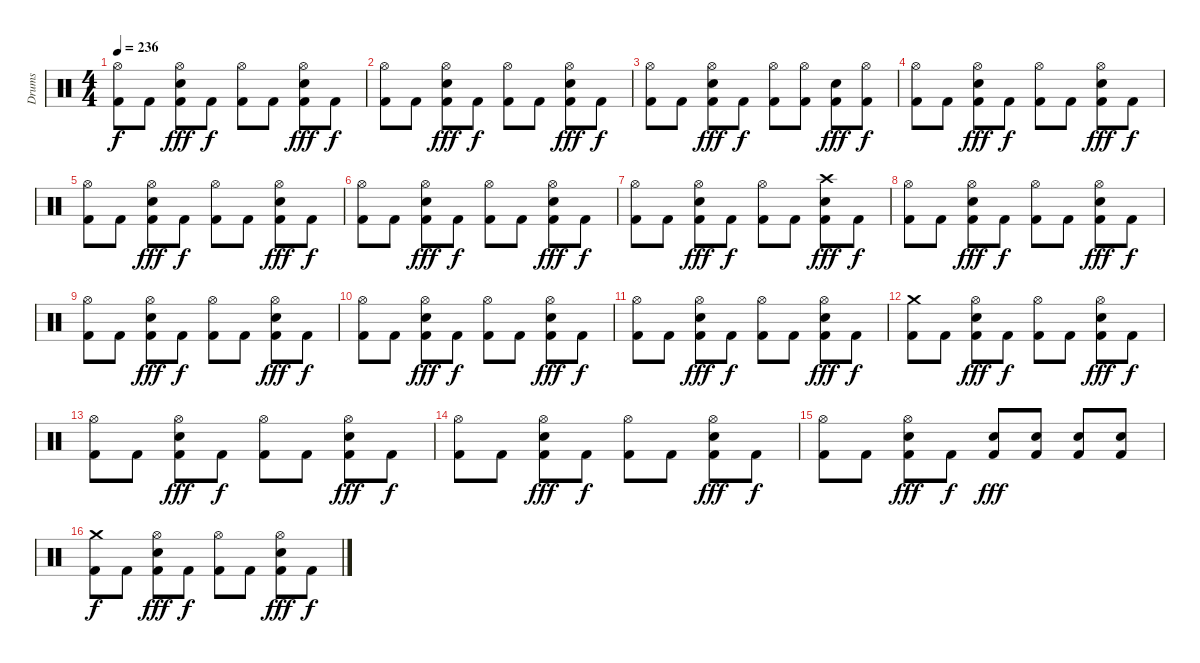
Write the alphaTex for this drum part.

\track ("Drums" "Drums") {instrument percussion}
\staff {score}
\articulation defaults
\ts (4 4)
\tempo 236
\clef neutral
\ks c
("Hi-Hat (open)" "Kick (hit) 2").8{dy f} "Kick (hit) 2".8 ("Hi-Hat (open)" "Kick (hit) 2" "Electric Snare (hit)").8{dy fff} "Kick (hit) 2".8{dy f} ("Hi-Hat (open)" "Kick (hit) 2").8 "Kick (hit) 2".8 ("Hi-Hat (open)" "Kick (hit) 2" "Electric Snare (hit)").8{dy fff} "Kick (hit) 2".8{dy f} |
("Hi-Hat (open)" "Kick (hit) 2").8 "Kick (hit) 2".8 ("Hi-Hat (open)" "Kick (hit) 2" "Electric Snare (hit)").8{dy fff} "Kick (hit) 2".8{dy f} ("Hi-Hat (open)" "Kick (hit) 2").8 "Kick (hit) 2".8 ("Hi-Hat (open)" "Kick (hit) 2" "Electric Snare (hit)").8{dy fff} "Kick (hit) 2".8{dy f} |
("Hi-Hat (open)" "Kick (hit) 2").8 "Kick (hit) 2".8 ("Hi-Hat (open)" "Kick (hit) 2" "Electric Snare (hit)").8{dy fff} "Kick (hit) 2".8{dy f} ("Hi-Hat (open)" "Kick (hit) 2").8 ("Hi-Hat (open)" "Kick (hit) 2").8 ("Kick (hit) 2" "Electric Snare (hit)").8{dy fff} ("Hi-Hat (open)" "Kick (hit) 2").8{dy f} |
("Hi-Hat (open)" "Kick (hit) 2").8 "Kick (hit) 2".8 ("Hi-Hat (open)" "Kick (hit) 2" "Electric Snare (hit)").8{dy fff} "Kick (hit) 2".8{dy f} ("Hi-Hat (open)" "Kick (hit) 2").8 "Kick (hit) 2".8 ("Hi-Hat (open)" "Kick (hit) 2" "Electric Snare (hit)").8{dy fff} "Kick (hit) 2".8{dy f} |
("Hi-Hat (open)" "Kick (hit) 2").8 "Kick (hit) 2".8 ("Hi-Hat (open)" "Kick (hit) 2" "Electric Snare (hit)").8{dy fff} "Kick (hit) 2".8{dy f} ("Hi-Hat (open)" "Kick (hit) 2").8 "Kick (hit) 2".8 ("Hi-Hat (open)" "Kick (hit) 2" "Electric Snare (hit)").8{dy fff} "Kick (hit) 2".8{dy f} |
("Hi-Hat (open)" "Kick (hit) 2").8 "Kick (hit) 2".8 ("Hi-Hat (open)" "Kick (hit) 2" "Electric Snare (hit)").8{dy fff} "Kick (hit) 2".8{dy f} ("Hi-Hat (open)" "Kick (hit) 2").8 "Kick (hit) 2".8 ("Hi-Hat (open)" "Kick (hit) 2" "Electric Snare (hit)").8{dy fff} "Kick (hit) 2".8{dy f} |
("Hi-Hat (open)" "Kick (hit) 2").8 "Kick (hit) 2".8 ("Hi-Hat (open)" "Kick (hit) 2" "Electric Snare (hit)").8{dy fff} "Kick (hit) 2".8{dy f} ("Hi-Hat (open)" "Kick (hit) 2").8 "Kick (hit) 2".8 ("Crash high (hit)" "Kick (hit) 2" "Electric Snare (hit)").8{dy fff} "Kick (hit) 2".8{dy f} |
("Hi-Hat (open)" "Kick (hit) 2").8 "Kick (hit) 2".8 ("Hi-Hat (open)" "Kick (hit) 2" "Electric Snare (hit)").8{dy fff} "Kick (hit) 2".8{dy f} ("Hi-Hat (open)" "Kick (hit) 2").8 "Kick (hit) 2".8 ("Hi-Hat (open)" "Kick (hit) 2" "Electric Snare (hit)").8{dy fff} "Kick (hit) 2".8{dy f} |
("Hi-Hat (open)" "Kick (hit) 2").8 "Kick (hit) 2".8 ("Hi-Hat (open)" "Kick (hit) 2" "Electric Snare (hit)").8{dy fff} "Kick (hit) 2".8{dy f} ("Hi-Hat (open)" "Kick (hit) 2").8 "Kick (hit) 2".8 ("Hi-Hat (open)" "Kick (hit) 2" "Electric Snare (hit)").8{dy fff} "Kick (hit) 2".8{dy f} |
("Hi-Hat (open)" "Kick (hit) 2").8 "Kick (hit) 2".8 ("Hi-Hat (open)" "Kick (hit) 2" "Electric Snare (hit)").8{dy fff} "Kick (hit) 2".8{dy f} ("Hi-Hat (open)" "Kick (hit) 2").8 "Kick (hit) 2".8 ("Hi-Hat (open)" "Kick (hit) 2" "Electric Snare (hit)").8{dy fff} "Kick (hit) 2".8{dy f} |
("Hi-Hat (open)" "Kick (hit) 2").8 "Kick (hit) 2".8 ("Hi-Hat (open)" "Kick (hit) 2" "Electric Snare (hit)").8{dy fff} "Kick (hit) 2".8{dy f} ("Hi-Hat (open)" "Kick (hit) 2").8 "Kick (hit) 2".8 ("Hi-Hat (open)" "Kick (hit) 2" "Electric Snare (hit)").8{dy fff} "Kick (hit) 2".8{dy f} |
("Crash medium (hit)" "Kick (hit) 2").8 "Kick (hit) 2".8 ("Hi-Hat (open)" "Kick (hit) 2" "Electric Snare (hit)").8{dy fff} "Kick (hit) 2".8{dy f} ("Hi-Hat (open)" "Kick (hit) 2").8 "Kick (hit) 2".8 ("Hi-Hat (open)" "Kick (hit) 2" "Electric Snare (hit)").8{dy fff} "Kick (hit) 2".8{dy f} |
("Hi-Hat (open)" "Kick (hit) 2").8 "Kick (hit) 2".8 ("Hi-Hat (open)" "Kick (hit) 2" "Electric Snare (hit)").8{dy fff} "Kick (hit) 2".8{dy f} ("Hi-Hat (open)" "Kick (hit) 2").8 "Kick (hit) 2".8 ("Hi-Hat (open)" "Kick (hit) 2" "Electric Snare (hit)").8{dy fff} "Kick (hit) 2".8{dy f} |
("Hi-Hat (open)" "Kick (hit) 2").8 "Kick (hit) 2".8 ("Hi-Hat (open)" "Kick (hit) 2" "Electric Snare (hit)").8{dy fff} "Kick (hit) 2".8{dy f} ("Hi-Hat (open)" "Kick (hit) 2").8 "Kick (hit) 2".8 ("Hi-Hat (open)" "Kick (hit) 2" "Electric Snare (hit)").8{dy fff} "Kick (hit) 2".8{dy f} |
("Hi-Hat (open)" "Kick (hit) 2").8 "Kick (hit) 2".8 ("Hi-Hat (open)" "Kick (hit) 2" "Electric Snare (hit)").8{dy fff} "Kick (hit) 2".8{dy f} ("Kick (hit) 2" "Electric Snare (hit)").8{dy fff} ("Kick (hit) 2" "Electric Snare (hit)").8 ("Kick (hit) 2" "Electric Snare (hit)").8 ("Kick (hit) 2" "Electric Snare (hit)").8 |
("Crash medium (hit)" "Kick (hit) 2").8{dy f} "Kick (hit) 2".8 ("Hi-Hat (open)" "Kick (hit) 2" "Electric Snare (hit)").8{dy fff} "Kick (hit) 2".8{dy f} ("Hi-Hat (open)" "Kick (hit) 2").8 "Kick (hit) 2".8 ("Hi-Hat (open)" "Kick (hit) 2" "Electric Snare (hit)").8{dy fff} "Kick (hit) 2".8{dy f}
